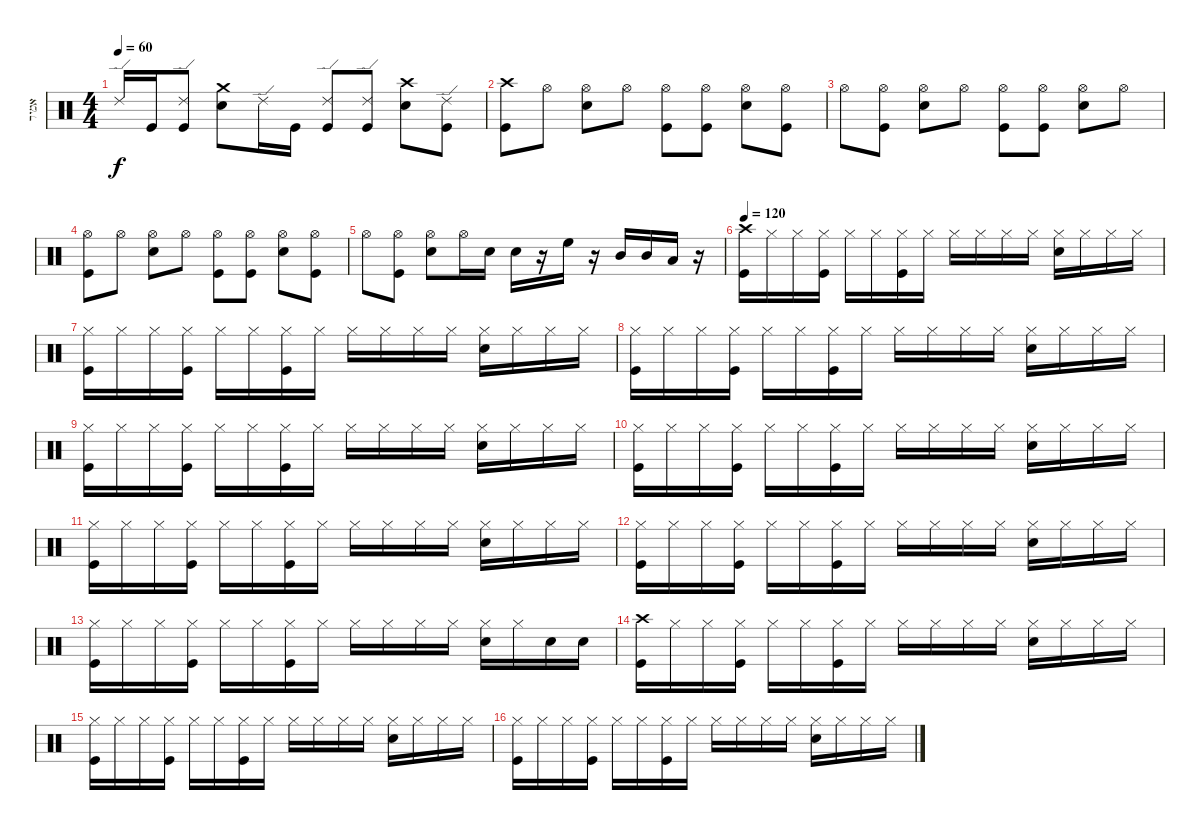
\track ("אמיר" "אמיר") {instrument percussion}
\staff {score}
\articulation defaults
\ts (4 4)
\tempo 60
\clef neutral
\ks c "Ride (edge) 2".16{dy f} "Kick (hit)".16
("Ride (edge) 2" "Kick (hit)").8 ("Crash medium (hit)" "Snare (hit) 2").8 "Ride (edge) 2".16 "Kick (hit)".16 ("Ride (edge) 2" "Kick (hit)").8 ("Ride (edge) 2" "Kick (hit)").8 ("Crash high (hit)" "Snare (hit) 2").8 ("Ride (edge) 2" "Kick (hit)").8 |
("Crash high (hit)" "Kick (hit)").8 "Hi-Hat (open)".8 ("Hi-Hat (open)" "Snare (hit) 2").8 "Hi-Hat (open)".8 ("Hi-Hat (open)" "Kick (hit)").8 ("Hi-Hat (open)" "Kick (hit)").8 ("Hi-Hat (open)" "Snare (hit) 2").8 ("Hi-Hat (open)" "Kick (hit)").8 |
"Hi-Hat (open)".8 ("Hi-Hat (open)" "Kick (hit)").8 ("Hi-Hat (open)" "Snare (hit) 2").8 "Hi-Hat (open)".8 ("Hi-Hat (open)" "Kick (hit)").8 ("Hi-Hat (open)" "Kick (hit)").8 ("Hi-Hat (open)" "Snare (hit) 2").8 "Hi-Hat (open)".8 |
("Hi-Hat (open)" "Kick (hit)").8 "Hi-Hat (open)".8 ("Hi-Hat (open)" "Snare (hit) 2").8 "Hi-Hat (open)".8 ("Hi-Hat (open)" "Kick (hit)").8 ("Hi-Hat (open)" "Kick (hit)").8 ("Hi-Hat (open)" "Snare (hit) 2").8 ("Hi-Hat (open)" "Kick (hit)").8 |
"Hi-Hat (open)".8 ("Hi-Hat (open)" "Kick (hit)").8 ("Hi-Hat (open)" "Snare (hit) 2").8 "Hi-Hat (open)".16 "Snare (hit) 2".16 "Snare (hit) 2".16 r.16 "High Floor Tom (hit)".16 r.16 "Mid Tom (hit)".16 "Mid Tom (hit)".16 "Low Floor Tom (hit)".16 r.16 |
\tempo 120
("Crash high (hit)" "Kick (hit)").16 "Hi-Hat (closed)".16 "Hi-Hat (closed)".16 ("Hi-Hat (closed)" "Kick (hit)").16 "Hi-Hat (closed)".16 "Hi-Hat (closed)".16 ("Hi-Hat (closed)" "Kick (hit)").16 "Hi-Hat (closed)".16 "Hi-Hat (closed)".16 "Hi-Hat (closed)".16 "Hi-Hat (closed)".16 "Hi-Hat (closed)".16 ("Hi-Hat (closed)" "Snare (hit) 2").16 "Hi-Hat (closed)".16 "Hi-Hat (closed)".16 "Hi-Hat (closed)".16 |
("Hi-Hat (closed)" "Kick (hit)").16 "Hi-Hat (closed)".16 "Hi-Hat (closed)".16 ("Hi-Hat (closed)" "Kick (hit)").16 "Hi-Hat (closed)".16 "Hi-Hat (closed)".16 ("Hi-Hat (closed)" "Kick (hit)").16 "Hi-Hat (closed)".16 "Hi-Hat (closed)".16 "Hi-Hat (closed)".16 "Hi-Hat (closed)".16 "Hi-Hat (closed)".16 ("Hi-Hat (closed)" "Snare (hit) 2").16 "Hi-Hat (closed)".16 "Hi-Hat (closed)".16 "Hi-Hat (closed)".16 |
("Hi-Hat (closed)" "Kick (hit)").16 "Hi-Hat (closed)".16 "Hi-Hat (closed)".16 ("Hi-Hat (closed)" "Kick (hit)").16 "Hi-Hat (closed)".16 "Hi-Hat (closed)".16 ("Hi-Hat (closed)" "Kick (hit)").16 "Hi-Hat (closed)".16 "Hi-Hat (closed)".16 "Hi-Hat (closed)".16 "Hi-Hat (closed)".16 "Hi-Hat (closed)".16 ("Hi-Hat (closed)" "Snare (hit) 2").16 "Hi-Hat (closed)".16 "Hi-Hat (closed)".16 "Hi-Hat (closed)".16 |
("Hi-Hat (closed)" "Kick (hit)").16 "Hi-Hat (closed)".16 "Hi-Hat (closed)".16 ("Hi-Hat (closed)" "Kick (hit)").16 "Hi-Hat (closed)".16 "Hi-Hat (closed)".16 ("Hi-Hat (closed)" "Kick (hit)").16 "Hi-Hat (closed)".16 "Hi-Hat (closed)".16 "Hi-Hat (closed)".16 "Hi-Hat (closed)".16 "Hi-Hat (closed)".16 ("Hi-Hat (closed)" "Snare (hit) 2").16 "Hi-Hat (closed)".16 "Hi-Hat (closed)".16 "Hi-Hat (closed)".16 |
("Hi-Hat (closed)" "Kick (hit)").16 "Hi-Hat (closed)".16 "Hi-Hat (closed)".16 ("Hi-Hat (closed)" "Kick (hit)").16 "Hi-Hat (closed)".16 "Hi-Hat (closed)".16 ("Hi-Hat (closed)" "Kick (hit)").16 "Hi-Hat (closed)".16 "Hi-Hat (closed)".16 "Hi-Hat (closed)".16 "Hi-Hat (closed)".16 "Hi-Hat (closed)".16 ("Hi-Hat (closed)" "Snare (hit) 2").16 "Hi-Hat (closed)".16 "Hi-Hat (closed)".16 "Hi-Hat (closed)".16 |
("Hi-Hat (closed)" "Kick (hit)").16 "Hi-Hat (closed)".16 "Hi-Hat (closed)".16 ("Hi-Hat (closed)" "Kick (hit)").16 "Hi-Hat (closed)".16 "Hi-Hat (closed)".16 ("Hi-Hat (closed)" "Kick (hit)").16 "Hi-Hat (closed)".16 "Hi-Hat (closed)".16 "Hi-Hat (closed)".16 "Hi-Hat (closed)".16 "Hi-Hat (closed)".16 ("Hi-Hat (closed)" "Snare (hit) 2").16 "Hi-Hat (closed)".16 "Hi-Hat (closed)".16 "Hi-Hat (closed)".16 |
("Hi-Hat (closed)" "Kick (hit)").16 "Hi-Hat (closed)".16 "Hi-Hat (closed)".16 ("Hi-Hat (closed)" "Kick (hit)").16 "Hi-Hat (closed)".16 "Hi-Hat (closed)".16 ("Hi-Hat (closed)" "Kick (hit)").16 "Hi-Hat (closed)".16 "Hi-Hat (closed)".16 "Hi-Hat (closed)".16 "Hi-Hat (closed)".16 "Hi-Hat (closed)".16 ("Hi-Hat (closed)" "Snare (hit) 2").16 "Hi-Hat (closed)".16 "Hi-Hat (closed)".16 "Hi-Hat (closed)".16 |
("Hi-Hat (closed)" "Kick (hit)").16 "Hi-Hat (closed)".16 "Hi-Hat (closed)".16 ("Hi-Hat (closed)" "Kick (hit)").16 "Hi-Hat (closed)".16 "Hi-Hat (closed)".16 ("Hi-Hat (closed)" "Kick (hit)").16 "Hi-Hat (closed)".16 "Hi-Hat (closed)".16 "Hi-Hat (closed)".16 "Hi-Hat (closed)".16 "Hi-Hat (closed)".16 ("Hi-Hat (closed)" "Snare (hit) 2").16 "Hi-Hat (closed)".16 "Snare (hit) 2".16 "Snare (hit) 2".16 |
("Crash high (hit)" "Kick (hit)").16 "Hi-Hat (closed)".16 "Hi-Hat (closed)".16 ("Hi-Hat (closed)" "Kick (hit)").16 "Hi-Hat (closed)".16 "Hi-Hat (closed)".16 ("Hi-Hat (closed)" "Kick (hit)").16 "Hi-Hat (closed)".16 "Hi-Hat (closed)".16 "Hi-Hat (closed)".16 "Hi-Hat (closed)".16 "Hi-Hat (closed)".16 ("Hi-Hat (closed)" "Snare (hit) 2").16 "Hi-Hat (closed)".16 "Hi-Hat (closed)".16 "Hi-Hat (closed)".16 |
("Hi-Hat (closed)" "Kick (hit)").16 "Hi-Hat (closed)".16 "Hi-Hat (closed)".16 ("Hi-Hat (closed)" "Kick (hit)").16 "Hi-Hat (closed)".16 "Hi-Hat (closed)".16 ("Hi-Hat (closed)" "Kick (hit)").16 "Hi-Hat (closed)".16 "Hi-Hat (closed)".16 "Hi-Hat (closed)".16 "Hi-Hat (closed)".16 "Hi-Hat (closed)".16 ("Hi-Hat (closed)" "Snare (hit) 2").16 "Hi-Hat (closed)".16 "Hi-Hat (closed)".16 "Hi-Hat (closed)".16 |
("Hi-Hat (closed)" "Kick (hit)").16 "Hi-Hat (closed)".16 "Hi-Hat (closed)".16 ("Hi-Hat (closed)" "Kick (hit)").16 "Hi-Hat (closed)".16 "Hi-Hat (closed)".16 ("Hi-Hat (closed)" "Kick (hit)").16 "Hi-Hat (closed)".16 "Hi-Hat (closed)".16 "Hi-Hat (closed)".16 "Hi-Hat (closed)".16 "Hi-Hat (closed)".16 ("Hi-Hat (closed)" "Snare (hit) 2").16 "Hi-Hat (closed)".16 "Hi-Hat (closed)".16 "Hi-Hat (closed)".16
